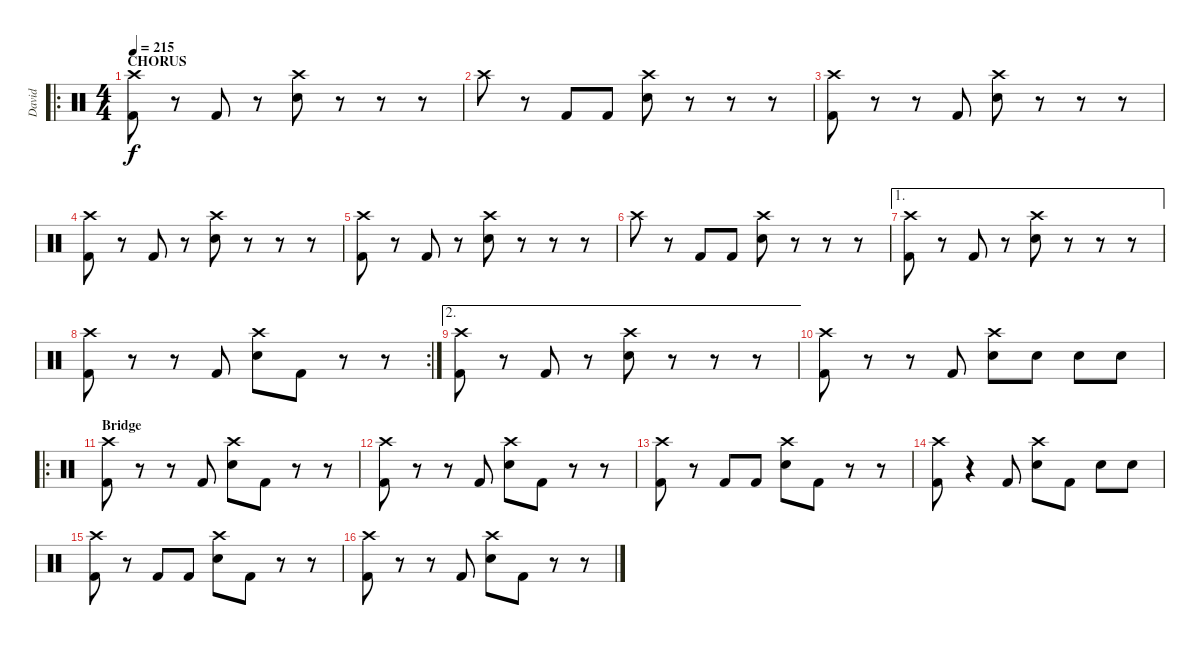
\track ("David" "David") {instrument percussion}
\staff {score}
\articulation defaults
\ro
\ts (4 4)
\section ("" "CHORUS")
\tempo 215
\clef neutral
\ks c
("Crash high (hit)" "Kick (hit) 2").8{dy f} r.8 "Kick (hit) 2".8 r.8 ("Crash high (hit)" "Electric Snare (hit)").8 r.8 r.8 r.8 |
"Crash high (hit)".8 r.8 "Kick (hit) 2".8 "Kick (hit) 2".8 ("Crash high (hit)" "Electric Snare (hit)").8 r.8 r.8 r.8 |
("Crash high (hit)" "Kick (hit) 2").8 r.8 r.8 "Kick (hit) 2".8 ("Crash high (hit)" "Electric Snare (hit)").8 r.8 r.8 r.8 |
("Crash high (hit)" "Kick (hit) 2").8 r.8 "Kick (hit) 2".8 r.8 ("Crash high (hit)" "Electric Snare (hit)").8 r.8 r.8 r.8 |
("Crash high (hit)" "Kick (hit) 2").8 r.8 "Kick (hit) 2".8 r.8 ("Crash high (hit)" "Electric Snare (hit)").8 r.8 r.8 r.8 |
"Crash high (hit)".8 r.8 "Kick (hit) 2".8 "Kick (hit) 2".8 ("Crash high (hit)" "Electric Snare (hit)").8 r.8 r.8 r.8 |
\ae 1
("Crash high (hit)" "Kick (hit) 2").8 r.8 "Kick (hit) 2".8 r.8 ("Crash high (hit)" "Electric Snare (hit)").8 r.8 r.8 r.8 |
\rc 2
("Crash high (hit)" "Kick (hit) 2").8 r.8 r.8 "Kick (hit) 2".8 ("Crash high (hit)" "Electric Snare (hit)").8 "Kick (hit) 2".8 r.8 r.8 |
\ae 2
("Crash high (hit)" "Kick (hit) 2").8 r.8 "Kick (hit) 2".8 r.8 ("Crash high (hit)" "Electric Snare (hit)").8 r.8 r.8 r.8 |
("Crash high (hit)" "Kick (hit) 2").8 r.8 r.8 "Kick (hit) 2".8 ("Crash high (hit)" "Electric Snare (hit)").8 "Electric Snare (hit)".8 "Electric Snare (hit)".8 "Electric Snare (hit)".8 |
\ro
\section ("" "Bridge")
("Crash high (hit)" "Kick (hit) 2").8 r.8 r.8 "Kick (hit) 2".8 ("Crash high (hit)" "Electric Snare (hit)").8 "Kick (hit) 2".8 r.8 r.8 |
("Crash high (hit)" "Kick (hit) 2").8 r.8 r.8 "Kick (hit) 2".8 ("Crash high (hit)" "Electric Snare (hit)").8 "Kick (hit) 2".8 r.8 r.8 |
("Crash high (hit)" "Kick (hit) 2").8 r.8 "Kick (hit) 2".8 "Kick (hit) 2".8 ("Crash high (hit)" "Electric Snare (hit)").8 "Kick (hit) 2".8 r.8 r.8 |
("Crash high (hit)" "Kick (hit) 2").8 r.4 "Kick (hit) 2".8 ("Crash high (hit)" "Electric Snare (hit)").8 "Kick (hit) 2".8 "Electric Snare (hit)".8 "Electric Snare (hit)".8 |
("Crash high (hit)" "Kick (hit) 2").8 r.8 "Kick (hit) 2".8 "Kick (hit) 2".8 ("Crash high (hit)" "Electric Snare (hit)").8 "Kick (hit) 2".8 r.8 r.8 |
("Crash high (hit)" "Kick (hit) 2").8 r.8 r.8 "Kick (hit) 2".8 ("Crash high (hit)" "Electric Snare (hit)").8 "Kick (hit) 2".8 r.8 r.8
